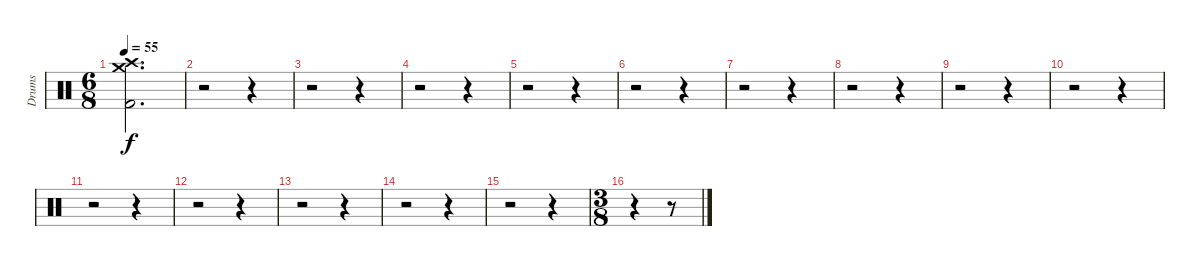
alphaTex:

\track ("Drums" "Drums") {instrument percussion}
\staff {score}
\articulation defaults
\ts (6 8)
\tempo 55
\clef neutral
\ks c
("Crash medium (hit)" "Crash high (hit)" "Kick (hit) 2").2{d dy f} |
r.2 r.4 |
r.2 r.4 |
r.2 r.4 |
r.2 r.4 |
r.2 r.4 |
r.2 r.4 |
r.2 r.4 |
r.2 r.4 |
r.2 r.4 |
r.2 r.4 |
r.2 r.4 |
r.2 r.4 |
r.2 r.4 |
r.2 r.4 |
\ts (3 8)
r.4 r.8
